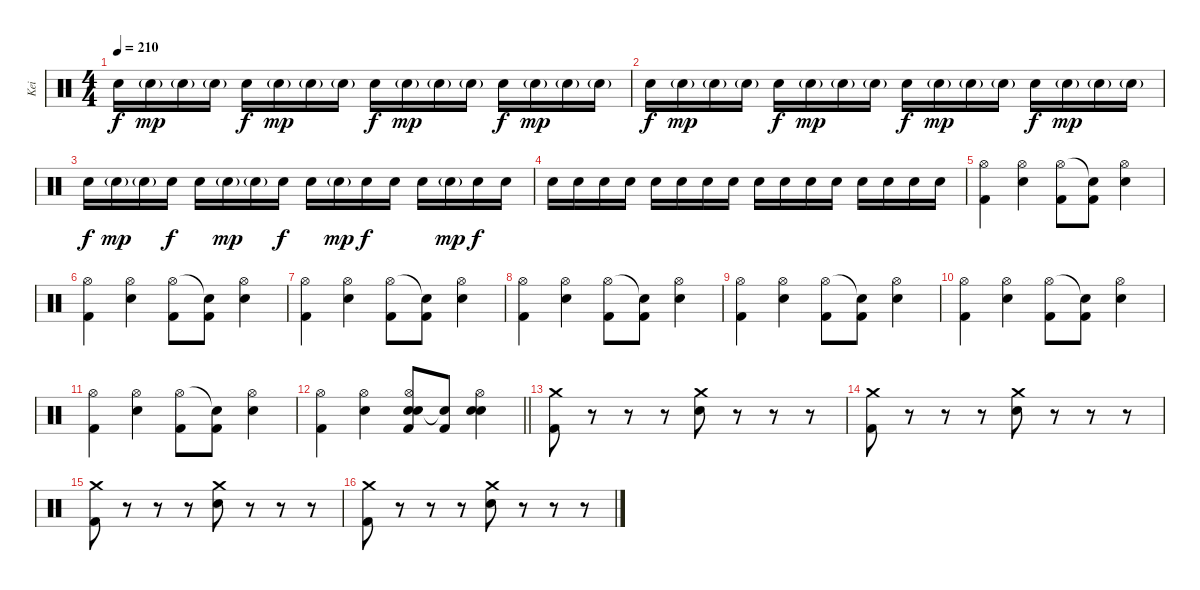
\track ("Kei" "Kei") {instrument percussion}
\staff {score}
\articulation defaults
\ts (4 4)
\tempo 210
\clef neutral
\ks c "Electric Snare (hit)".16{dy f} "Electric Snare (hit)"{g}.16{dy mp} "Electric Snare (hit)"{g}.16 "Electric Snare (hit)"{g}.16 "Electric Snare (hit)".16{dy f} "Electric Snare (hit)"{g}.16{dy mp} "Electric Snare (hit)"{g}.16 "Electric Snare (hit)"{g}.16 "Electric Snare (hit)".16{dy f} "Electric Snare (hit)"{g}.16{dy mp} "Electric Snare (hit)"{g}.16 "Electric Snare (hit)"{g}.16 "Electric Snare (hit)".16{dy f} "Electric Snare (hit)"{g}.16{dy mp} "Electric Snare (hit)"{g}.16 "Electric Snare (hit)"{g}.16
|
"Electric Snare (hit)".16{dy f} "Electric Snare (hit)"{g}.16{dy mp} "Electric Snare (hit)"{g}.16 "Electric Snare (hit)"{g}.16 "Electric Snare (hit)".16{dy f} "Electric Snare (hit)"{g}.16{dy mp} "Electric Snare (hit)"{g}.16 "Electric Snare (hit)"{g}.16 "Electric Snare (hit)".16{dy f} "Electric Snare (hit)"{g}.16{dy mp} "Electric Snare (hit)"{g}.16 "Electric Snare (hit)"{g}.16 "Electric Snare (hit)".16{dy f} "Electric Snare (hit)"{g}.16{dy mp} "Electric Snare (hit)"{g}.16 "Electric Snare (hit)"{g}.16 |
"Electric Snare (hit)".16{dy f} "Electric Snare (hit)"{g}.16{dy mp} "Electric Snare (hit)"{g}.16 "Electric Snare (hit)".16{dy f} "Electric Snare (hit)".16 "Electric Snare (hit)"{g}.16{dy mp} "Electric Snare (hit)"{g}.16 "Electric Snare (hit)".16{dy f} "Electric Snare (hit)".16 "Electric Snare (hit)"{g}.16{dy mp} "Electric Snare (hit)".16{dy f} "Electric Snare (hit)".16 "Electric Snare (hit)".16 "Electric Snare (hit)"{g}.16{dy mp} "Electric Snare (hit)".16{dy f} "Electric Snare (hit)".16 |
"Electric Snare (hit)".16 "Electric Snare (hit)".16 "Electric Snare (hit)".16 "Electric Snare (hit)".16 "Electric Snare (hit)".16 "Electric Snare (hit)".16 "Electric Snare (hit)".16 "Electric Snare (hit)".16 "Electric Snare (hit)".16 "Electric Snare (hit)".16 "Electric Snare (hit)".16 "Electric Snare (hit)".16 "Electric Snare (hit)".16 "Electric Snare (hit)".16 "Electric Snare (hit)".16 "Electric Snare (hit)".16 |
("Hi-Hat (open)" "Kick (hit) 2").4 ("Hi-Hat (open)" "Electric Snare (hit)").4 ("Hi-Hat (open)" "Kick (hit) 2").8 ("Snare (hit)"{t} "Kick (hit) 2").8 ("Hi-Hat (open)" "Electric Snare (hit)").4 |
("Hi-Hat (open)" "Kick (hit) 2").4 ("Hi-Hat (open)" "Electric Snare (hit)").4 ("Hi-Hat (open)" "Kick (hit) 2").8 ("Snare (hit)"{t} "Kick (hit) 2").8 ("Hi-Hat (open)" "Electric Snare (hit)").4 |
("Hi-Hat (open)" "Kick (hit) 2").4 ("Hi-Hat (open)" "Electric Snare (hit)").4 ("Hi-Hat (open)" "Kick (hit) 2").8 ("Snare (hit)"{t} "Kick (hit) 2").8 ("Hi-Hat (open)" "Electric Snare (hit)").4 |
("Hi-Hat (open)" "Kick (hit) 2").4 ("Hi-Hat (open)" "Electric Snare (hit)").4 ("Hi-Hat (open)" "Kick (hit) 2").8 ("Snare (hit)"{t} "Kick (hit) 2").8 ("Hi-Hat (open)" "Electric Snare (hit)").4 |
("Hi-Hat (open)" "Kick (hit) 2").4 ("Hi-Hat (open)" "Electric Snare (hit)").4 ("Hi-Hat (open)" "Kick (hit) 2").8 ("Snare (hit)"{t} "Kick (hit) 2").8 ("Hi-Hat (open)" "Electric Snare (hit)").4 |
("Hi-Hat (open)" "Kick (hit) 2").4 ("Hi-Hat (open)" "Electric Snare (hit)").4 ("Hi-Hat (open)" "Kick (hit) 2").8 ("Snare (hit)"{t} "Kick (hit) 2").8 ("Hi-Hat (open)" "Electric Snare (hit)").4 |
("Hi-Hat (open)" "Kick (hit) 2").4 ("Hi-Hat (open)" "Electric Snare (hit)").4 ("Hi-Hat (open)" "Kick (hit) 2").8 ("Snare (hit)"{t} "Kick (hit) 2").8 ("Hi-Hat (open)" "Electric Snare (hit)").4 |
\barLineRight lightlight
("Hi-Hat (open)" "Kick (hit) 2").4 ("Hi-Hat (open)" "Electric Snare (hit)").4 ("Electric Snare (hit)" "Hi-Hat (open)" "Electric Snare (hit)" "Kick (hit) 2").8 ("Snare (hit)"{t} "Kick (hit) 2").8 ("Electric Snare (hit)" "Hi-Hat (open)" "Electric Snare (hit)").4 |
("Crash medium (hit)" "Kick (hit) 2").8 r.8 r.8 r.8 ("Crash medium (hit)" "Electric Snare (hit)").8 r.8 r.8 r.8 |
("Crash medium (hit)" "Kick (hit) 2").8 r.8 r.8 r.8 ("Crash medium (hit)" "Electric Snare (hit)").8 r.8 r.8 r.8 |
("Crash medium (hit)" "Kick (hit) 2").8 r.8 r.8 r.8 ("Crash medium (hit)" "Electric Snare (hit)").8 r.8 r.8 r.8 |
("Crash medium (hit)" "Kick (hit) 2").8 r.8 r.8 r.8 ("Crash medium (hit)" "Electric Snare (hit)").8 r.8 r.8 r.8
